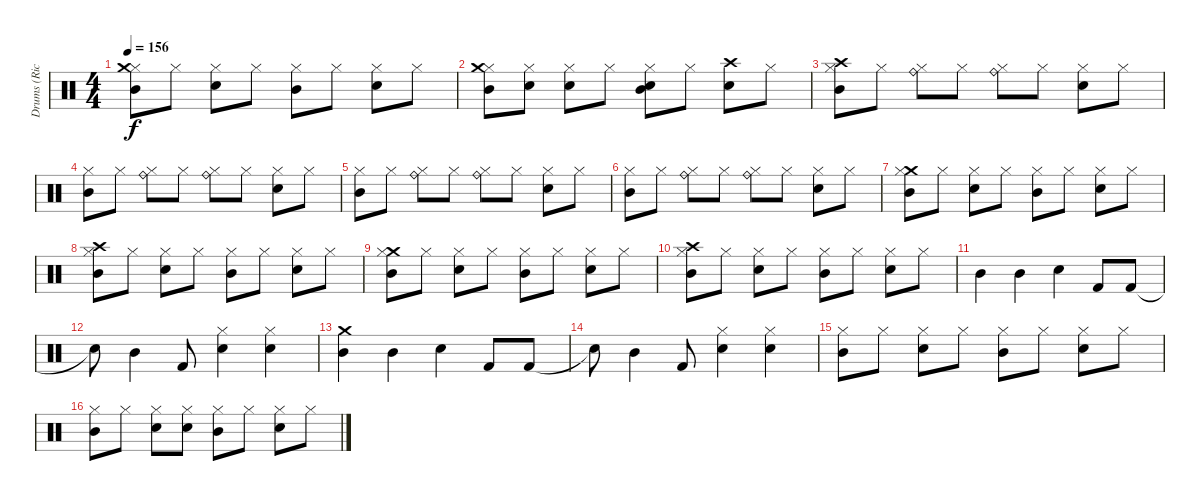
\track ("Drums (Ricky)" "Drums (Ric") {instrument percussion}
\staff {score}
\articulation defaults
\ts (4 4)
\tempo 156
\clef neutral
\ks c
("Mid Tom (hit)" "Hi-Hat (closed)" "Crash medium (hit)").8{dy f} "Hi-Hat (closed)".8 ("Hi-Hat (closed)" "Electric Snare (hit)").8 "Hi-Hat (closed)".8 ("Mid Tom (hit)" "Hi-Hat (closed)").8 "Hi-Hat (closed)".8 ("Hi-Hat (closed)" "Electric Snare (hit)").8 "Hi-Hat (closed)".8 |
("Mid Tom (hit)" "Hi-Hat (closed)" "Crash medium (hit)").8 ("Hi-Hat (closed)" "Electric Snare (hit)").8 ("Hi-Hat (closed)" "Electric Snare (hit)").8 "Hi-Hat (closed)".8 ("Mid Tom (hit)" "Hi-Hat (closed)" "Electric Snare (hit)").8 "Hi-Hat (closed)".8 ("Crash high (hit)" "Electric Snare (hit)").8 "Hi-Hat (closed)".8 |
("Crash high (hit)" "Mid Tom (hit)" "Hi-Hat (closed)").8 "Hi-Hat (closed)".8 ("Ride (bell)" "Hi-Hat (closed)").8 "Hi-Hat (closed)".8 ("Ride (bell)" "Hi-Hat (closed)").8 "Hi-Hat (closed)".8 ("Electric Snare (hit)" "Hi-Hat (closed)").8 "Hi-Hat (closed)".8 |
("Mid Tom (hit)" "Hi-Hat (closed)").8 "Hi-Hat (closed)".8 ("Ride (bell)" "Hi-Hat (closed)").8 "Hi-Hat (closed)".8 ("Ride (bell)" "Hi-Hat (closed)").8 "Hi-Hat (closed)".8 ("Electric Snare (hit)" "Hi-Hat (closed)").8 "Hi-Hat (closed)".8 |
("Mid Tom (hit)" "Hi-Hat (closed)").8 "Hi-Hat (closed)".8 ("Ride (bell)" "Hi-Hat (closed)").8 "Hi-Hat (closed)".8 ("Ride (bell)" "Hi-Hat (closed)").8 "Hi-Hat (closed)".8 ("Electric Snare (hit)" "Hi-Hat (closed)").8 "Hi-Hat (closed)".8 |
("Mid Tom (hit)" "Hi-Hat (closed)").8 "Hi-Hat (closed)".8 ("Ride (bell)" "Hi-Hat (closed)").8 "Hi-Hat (closed)".8 ("Ride (bell)" "Hi-Hat (closed)").8 "Hi-Hat (closed)".8 ("Electric Snare (hit)" "Hi-Hat (closed)").8 "Hi-Hat (closed)".8 |
("Crash medium (hit)" "Mid Tom (hit)" "Hi-Hat (closed)").8 "Hi-Hat (closed)".8 ("Electric Snare (hit)" "Hi-Hat (closed)").8 "Hi-Hat (closed)".8 ("Mid Tom (hit)" "Hi-Hat (closed)").8 "Hi-Hat (closed)".8 ("Electric Snare (hit)" "Hi-Hat (closed)").8 "Hi-Hat (closed)".8 |
("Crash high (hit)" "Mid Tom (hit)" "Hi-Hat (closed)").8 "Hi-Hat (closed)".8 ("Electric Snare (hit)" "Hi-Hat (closed)").8 "Hi-Hat (closed)".8 ("Mid Tom (hit)" "Hi-Hat (closed)").8 "Hi-Hat (closed)".8 ("Electric Snare (hit)" "Hi-Hat (closed)").8 "Hi-Hat (closed)".8 |
("Crash medium (hit)" "Mid Tom (hit)" "Hi-Hat (closed)").8 "Hi-Hat (closed)".8 ("Electric Snare (hit)" "Hi-Hat (closed)").8 "Hi-Hat (closed)".8 ("Mid Tom (hit)" "Hi-Hat (closed)").8 "Hi-Hat (closed)".8 ("Electric Snare (hit)" "Hi-Hat (closed)").8 "Hi-Hat (closed)".8 |
("Crash high (hit)" "Mid Tom (hit)" "Hi-Hat (closed)").8 "Hi-Hat (closed)".8 ("Electric Snare (hit)" "Hi-Hat (closed)").8 "Hi-Hat (closed)".8 ("Mid Tom (hit)" "Hi-Hat (closed)").8 "Hi-Hat (closed)".8 ("Electric Snare (hit)" "Hi-Hat (closed)").8 "Hi-Hat (closed)".8 |
"Mid Tom (hit)".4 "Mid Tom (hit)".4 "Electric Snare (hit)".4 "Kick (hit) 2".8 "Kick (hit) 2".8 |
"Snare (hit)"{t}.8 "Mid Tom (hit)".4 "Kick (hit) 2".8 ("Electric Snare (hit)" "Hi-Hat (closed)").4 ("Electric Snare (hit)" "Hi-Hat (closed)").4 |
("Mid Tom (hit)" "Crash medium (hit)").4 "Mid Tom (hit)".4 "Electric Snare (hit)".4 "Kick (hit) 2".8 "Kick (hit) 2".8 |
"Snare (hit)"{t}.8 "Mid Tom (hit)".4 "Kick (hit) 2".8 ("Electric Snare (hit)" "Hi-Hat (closed)").4 ("Electric Snare (hit)" "Hi-Hat (closed)").4 |
("Mid Tom (hit)" "Hi-Hat (closed)").8 "Hi-Hat (closed)".8 ("Electric Snare (hit)" "Hi-Hat (closed)").8 "Hi-Hat (closed)".8 ("Mid Tom (hit)" "Hi-Hat (closed)").8 "Hi-Hat (closed)".8 ("Electric Snare (hit)" "Hi-Hat (closed)").8 "Hi-Hat (closed)".8 |
("Mid Tom (hit)" "Hi-Hat (closed)").8 "Hi-Hat (closed)".8 ("Electric Snare (hit)" "Hi-Hat (closed)").8 ("Electric Snare (hit)" "Hi-Hat (closed)").8 ("Mid Tom (hit)" "Hi-Hat (closed)").8 "Hi-Hat (closed)".8 ("Electric Snare (hit)" "Hi-Hat (closed)").8 "Hi-Hat (closed)".8
